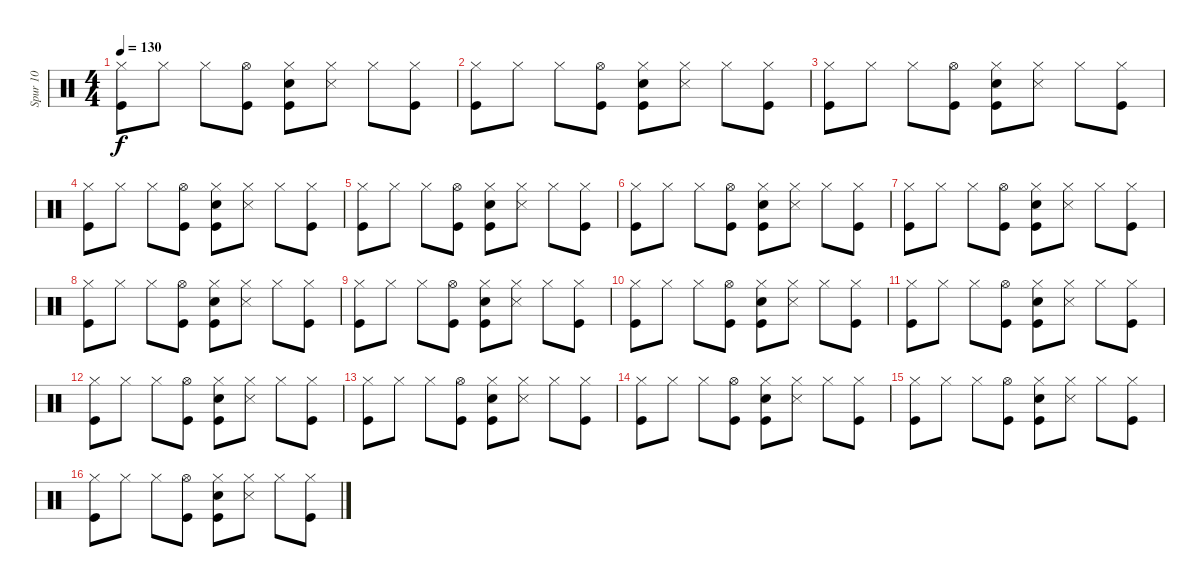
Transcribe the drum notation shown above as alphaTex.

\track ("Spur 10" "Spur 10") {instrument percussion}
\staff {score}
\articulation defaults
\ts (4 4)
\tempo 130
\clef neutral
\ks c
("Kick (hit)" "Hi-Hat (closed)").8{dy f} "Hi-Hat (closed)".8 "Hi-Hat (closed)".8 ("Kick (hit)" "Hi-Hat (open)").8 ("Snare (hit) 2" "Kick (hit)" "Hi-Hat (closed)").8 ("Snare (side stick) 3" "Hi-Hat (closed)").8 "Hi-Hat (closed)".8 ("Kick (hit)" "Hi-Hat (closed)").8 |
("Kick (hit)" "Hi-Hat (closed)").8 "Hi-Hat (closed)".8 "Hi-Hat (closed)".8 ("Kick (hit)" "Hi-Hat (open)").8 ("Snare (hit) 2" "Kick (hit)" "Hi-Hat (closed)").8 ("Snare (side stick) 3" "Hi-Hat (closed)").8 "Hi-Hat (closed)".8 ("Kick (hit)" "Hi-Hat (closed)").8 |
("Kick (hit)" "Hi-Hat (closed)").8 "Hi-Hat (closed)".8 "Hi-Hat (closed)".8 ("Kick (hit)" "Hi-Hat (open)").8 ("Snare (hit) 2" "Kick (hit)" "Hi-Hat (closed)").8 ("Snare (side stick) 3" "Hi-Hat (closed)").8 "Hi-Hat (closed)".8 ("Kick (hit)" "Hi-Hat (closed)").8 |
("Kick (hit)" "Hi-Hat (closed)").8 "Hi-Hat (closed)".8 "Hi-Hat (closed)".8 ("Kick (hit)" "Hi-Hat (open)").8 ("Snare (hit) 2" "Kick (hit)" "Hi-Hat (closed)").8 ("Snare (side stick) 3" "Hi-Hat (closed)").8 "Hi-Hat (closed)".8 ("Kick (hit)" "Hi-Hat (closed)").8 |
("Kick (hit)" "Hi-Hat (closed)").8 "Hi-Hat (closed)".8 "Hi-Hat (closed)".8 ("Kick (hit)" "Hi-Hat (open)").8 ("Snare (hit) 2" "Kick (hit)" "Hi-Hat (closed)").8 ("Snare (side stick) 3" "Hi-Hat (closed)").8 "Hi-Hat (closed)".8 ("Kick (hit)" "Hi-Hat (closed)").8 |
("Kick (hit)" "Hi-Hat (closed)").8 "Hi-Hat (closed)".8 "Hi-Hat (closed)".8 ("Kick (hit)" "Hi-Hat (open)").8 ("Snare (hit) 2" "Kick (hit)" "Hi-Hat (closed)").8 ("Snare (side stick) 3" "Hi-Hat (closed)").8 "Hi-Hat (closed)".8 ("Kick (hit)" "Hi-Hat (closed)").8 |
("Kick (hit)" "Hi-Hat (closed)").8 "Hi-Hat (closed)".8 "Hi-Hat (closed)".8 ("Kick (hit)" "Hi-Hat (open)").8 ("Snare (hit) 2" "Kick (hit)" "Hi-Hat (closed)").8 ("Snare (side stick) 3" "Hi-Hat (closed)").8 "Hi-Hat (closed)".8 ("Kick (hit)" "Hi-Hat (closed)").8 |
("Kick (hit)" "Hi-Hat (closed)").8 "Hi-Hat (closed)".8 "Hi-Hat (closed)".8 ("Kick (hit)" "Hi-Hat (open)").8 ("Snare (hit) 2" "Kick (hit)" "Hi-Hat (closed)").8 ("Snare (side stick) 3" "Hi-Hat (closed)").8 "Hi-Hat (closed)".8 ("Kick (hit)" "Hi-Hat (closed)").8 |
("Kick (hit)" "Hi-Hat (closed)").8 "Hi-Hat (closed)".8 "Hi-Hat (closed)".8 ("Kick (hit)" "Hi-Hat (open)").8 ("Snare (hit) 2" "Kick (hit)" "Hi-Hat (closed)").8 ("Snare (side stick) 3" "Hi-Hat (closed)").8 "Hi-Hat (closed)".8 ("Kick (hit)" "Hi-Hat (closed)").8 |
("Kick (hit)" "Hi-Hat (closed)").8 "Hi-Hat (closed)".8 "Hi-Hat (closed)".8 ("Kick (hit)" "Hi-Hat (open)").8 ("Snare (hit) 2" "Kick (hit)" "Hi-Hat (closed)").8 ("Snare (side stick) 3" "Hi-Hat (closed)").8 "Hi-Hat (closed)".8 ("Kick (hit)" "Hi-Hat (closed)").8 |
("Kick (hit)" "Hi-Hat (closed)").8 "Hi-Hat (closed)".8 "Hi-Hat (closed)".8 ("Kick (hit)" "Hi-Hat (open)").8 ("Snare (hit) 2" "Kick (hit)" "Hi-Hat (closed)").8 ("Snare (side stick) 3" "Hi-Hat (closed)").8 "Hi-Hat (closed)".8 ("Kick (hit)" "Hi-Hat (closed)").8 |
("Kick (hit)" "Hi-Hat (closed)").8 "Hi-Hat (closed)".8 "Hi-Hat (closed)".8 ("Kick (hit)" "Hi-Hat (open)").8 ("Snare (hit) 2" "Kick (hit)" "Hi-Hat (closed)").8 ("Snare (side stick) 3" "Hi-Hat (closed)").8 "Hi-Hat (closed)".8 ("Kick (hit)" "Hi-Hat (closed)").8 |
("Kick (hit)" "Hi-Hat (closed)").8 "Hi-Hat (closed)".8 "Hi-Hat (closed)".8 ("Kick (hit)" "Hi-Hat (open)").8 ("Snare (hit) 2" "Kick (hit)" "Hi-Hat (closed)").8 ("Snare (side stick) 3" "Hi-Hat (closed)").8 "Hi-Hat (closed)".8 ("Kick (hit)" "Hi-Hat (closed)").8 |
("Kick (hit)" "Hi-Hat (closed)").8 "Hi-Hat (closed)".8 "Hi-Hat (closed)".8 ("Kick (hit)" "Hi-Hat (open)").8 ("Snare (hit) 2" "Kick (hit)" "Hi-Hat (closed)").8 ("Snare (side stick) 3" "Hi-Hat (closed)").8 "Hi-Hat (closed)".8 ("Kick (hit)" "Hi-Hat (closed)").8 |
("Kick (hit)" "Hi-Hat (closed)").8 "Hi-Hat (closed)".8 "Hi-Hat (closed)".8 ("Kick (hit)" "Hi-Hat (open)").8 ("Snare (hit) 2" "Kick (hit)" "Hi-Hat (closed)").8 ("Snare (side stick) 3" "Hi-Hat (closed)").8 "Hi-Hat (closed)".8 ("Kick (hit)" "Hi-Hat (closed)").8 |
("Kick (hit)" "Hi-Hat (closed)").8 "Hi-Hat (closed)".8 "Hi-Hat (closed)".8 ("Kick (hit)" "Hi-Hat (open)").8 ("Snare (hit) 2" "Kick (hit)" "Hi-Hat (closed)").8 ("Snare (side stick) 3" "Hi-Hat (closed)").8 "Hi-Hat (closed)".8 ("Kick (hit)" "Hi-Hat (closed)").8
